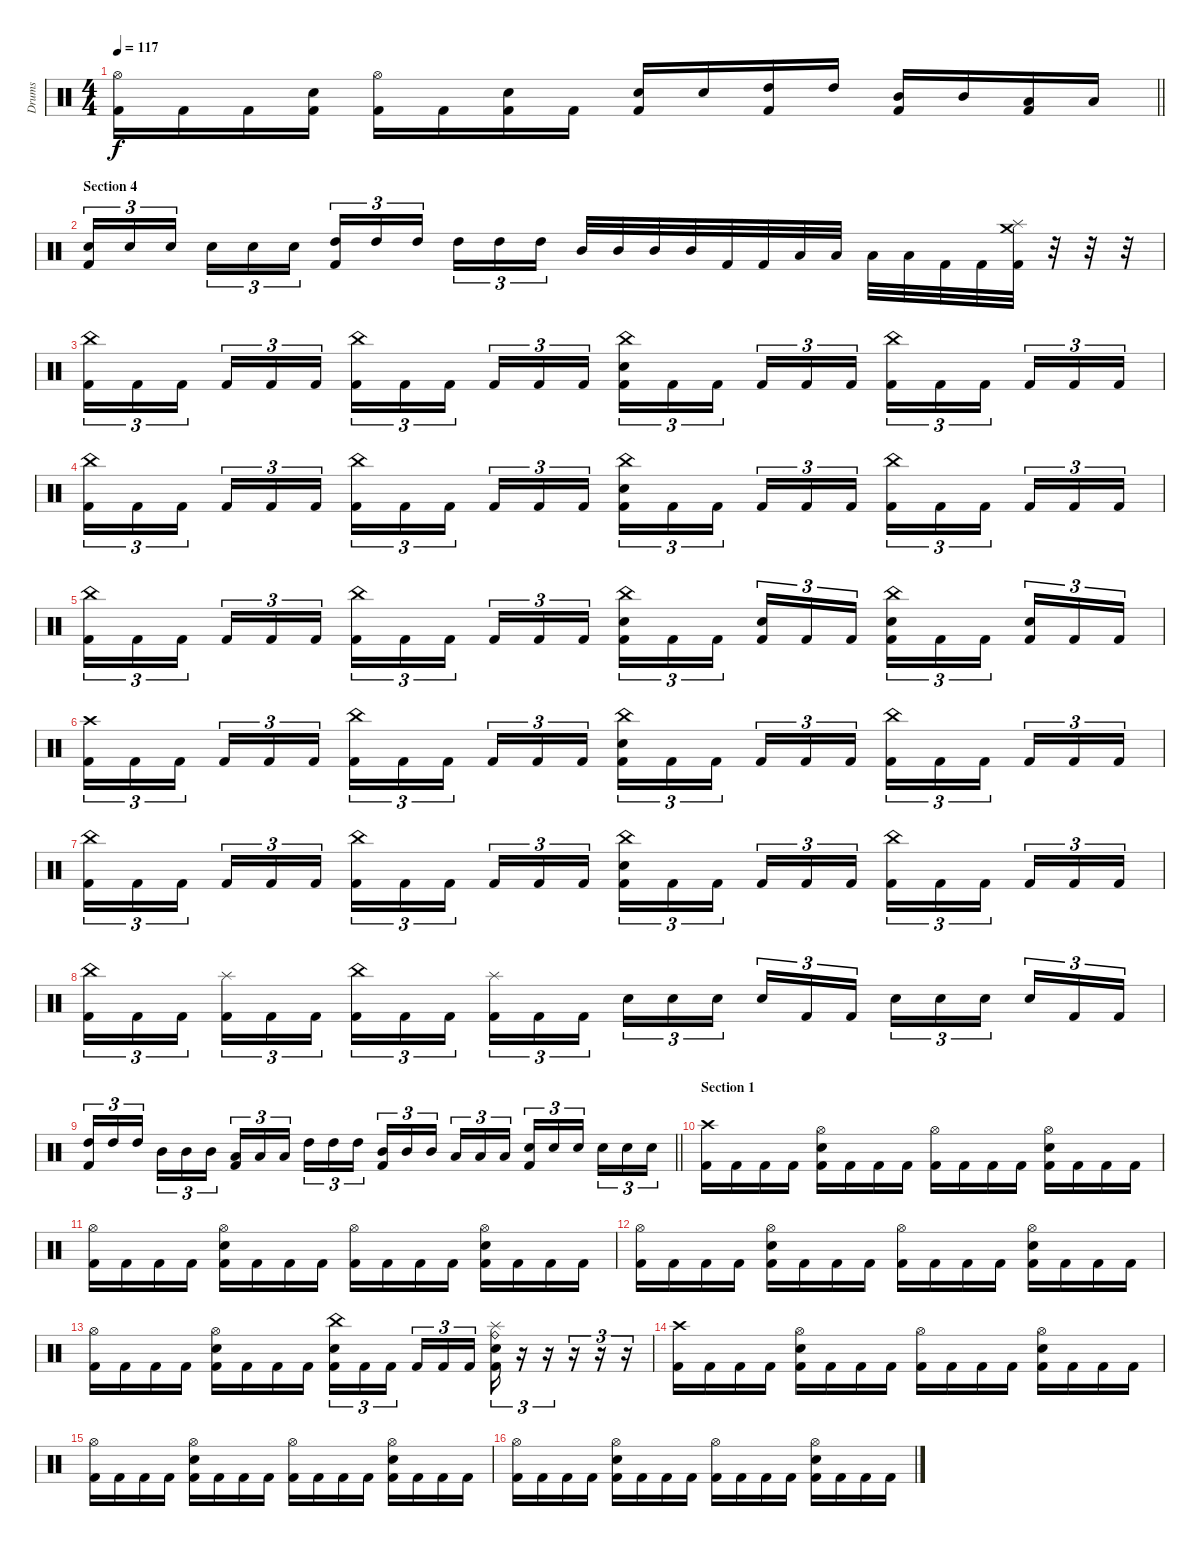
\track ("Drums" "Drums") {instrument percussion}
\staff {score}
\articulation defaults
\ts (4 4)
\tempo 117
\clef neutral
\barLineRight lightlight
\ks c
("Hi-Hat (open)" "Kick (hit) 2").16{dy f} "Kick (hit) 2".16 "Kick (hit) 2".16 ("Snare (hit) 2" "Kick (hit) 2").16 ("Hi-Hat (open)" "Kick (hit) 2").16 "Kick (hit) 2".16 ("Snare (hit) 2" "Kick (hit) 2").16 "Kick (hit) 2".16 ("Snare (hit) 2" "Kick (hit) 2").16 "Snare (hit) 2".16 ("High Tom (hit)" "Kick (hit) 2").16 "High Tom (hit)".16 ("Mid Tom (hit)" "Kick (hit) 2").16 "Mid Tom (hit)".16 ("Low Tom (hit)" "Kick (hit) 2").16 "Low Tom (hit)".16 |
\section ("" "Section 4")
("Snare (hit) 2" "Kick (hit) 2").16{tu (3 2)} "Snare (hit) 2".16{tu (3 2)} "Snare (hit) 2".16{tu (3 2) beam splitsecondary} "Snare (hit) 2".16{tu (3 2)} "Snare (hit) 2".16{tu (3 2)} "Snare (hit) 2".16{tu (3 2)} ("High Tom (hit)" "Kick (hit) 2").16{tu (3 2)} "High Tom (hit)".16{tu (3 2)} "High Tom (hit)".16{tu (3 2) beam splitsecondary} "High Tom (hit)".16{tu (3 2)} "High Tom (hit)".16{tu (3 2)} "High Tom (hit)".16{tu (3 2)} "Mid Tom (hit)".32 "Mid Tom (hit)".32 "Mid Tom (hit)".32 "Mid Tom (hit)".32 "Kick (hit) 2".32 "Kick (hit) 2".32 "Low Tom (hit)".32 "Low Tom (hit)".32 "Low Tom (hit)".32 "Low Tom (hit)".32 "Kick (hit) 2".32 "Kick (hit) 2".32 ("Crash medium (hit)" "Splash (hit)" "Kick (hit) 2").32 r.32 r.32 r.32 |
("China (hit)" "Kick (hit) 2").16{tu (3 2)} "Kick (hit) 2".16{tu (3 2)} "Kick (hit) 2".16{tu (3 2) beam splitsecondary} "Kick (hit) 2".16{tu (3 2)} "Kick (hit) 2".16{tu (3 2)} "Kick (hit) 2".16{tu (3 2)} ("China (hit)" "Kick (hit) 2").16{tu (3 2)} "Kick (hit) 2".16{tu (3 2)} "Kick (hit) 2".16{tu (3 2) beam splitsecondary} "Kick (hit) 2".16{tu (3 2)} "Kick (hit) 2".16{tu (3 2)} "Kick (hit) 2".16{tu (3 2)} ("China (hit)" "Snare (hit) 2" "Kick (hit) 2").16{tu (3 2)} "Kick (hit) 2".16{tu (3 2)} "Kick (hit) 2".16{tu (3 2) beam splitsecondary} "Kick (hit) 2".16{tu (3 2)} "Kick (hit) 2".16{tu (3 2)} "Kick (hit) 2".16{tu (3 2)} ("China (hit)" "Kick (hit) 2").16{tu (3 2)} "Kick (hit) 2".16{tu (3 2)} "Kick (hit) 2".16{tu (3 2) beam splitsecondary} "Kick (hit) 2".16{tu (3 2)} "Kick (hit) 2".16{tu (3 2)} "Kick (hit) 2".16{tu (3 2)} |
("China (hit)" "Kick (hit) 2").16{tu (3 2)} "Kick (hit) 2".16{tu (3 2)} "Kick (hit) 2".16{tu (3 2) beam splitsecondary} "Kick (hit) 2".16{tu (3 2)} "Kick (hit) 2".16{tu (3 2)} "Kick (hit) 2".16{tu (3 2)} ("China (hit)" "Kick (hit) 2").16{tu (3 2)} "Kick (hit) 2".16{tu (3 2)} "Kick (hit) 2".16{tu (3 2) beam splitsecondary} "Kick (hit) 2".16{tu (3 2)} "Kick (hit) 2".16{tu (3 2)} "Kick (hit) 2".16{tu (3 2)} ("China (hit)" "Snare (hit) 2" "Kick (hit) 2").16{tu (3 2)} "Kick (hit) 2".16{tu (3 2)} "Kick (hit) 2".16{tu (3 2) beam splitsecondary} "Kick (hit) 2".16{tu (3 2)} "Kick (hit) 2".16{tu (3 2)} "Kick (hit) 2".16{tu (3 2)} ("China (hit)" "Kick (hit) 2").16{tu (3 2)} "Kick (hit) 2".16{tu (3 2)} "Kick (hit) 2".16{tu (3 2) beam splitsecondary} "Kick (hit) 2".16{tu (3 2)} "Kick (hit) 2".16{tu (3 2)} "Kick (hit) 2".16{tu (3 2)} |
("China (hit)" "Kick (hit) 2").16{tu (3 2)} "Kick (hit) 2".16{tu (3 2)} "Kick (hit) 2".16{tu (3 2) beam splitsecondary} "Kick (hit) 2".16{tu (3 2)} "Kick (hit) 2".16{tu (3 2)} "Kick (hit) 2".16{tu (3 2)} ("China (hit)" "Kick (hit) 2").16{tu (3 2)} "Kick (hit) 2".16{tu (3 2)} "Kick (hit) 2".16{tu (3 2) beam splitsecondary} "Kick (hit) 2".16{tu (3 2)} "Kick (hit) 2".16{tu (3 2)} "Kick (hit) 2".16{tu (3 2)} ("China (hit)" "Snare (hit) 2" "Kick (hit) 2").16{tu (3 2)} "Kick (hit) 2".16{tu (3 2)} "Kick (hit) 2".16{tu (3 2) beam splitsecondary} ("Snare (hit) 2" "Kick (hit) 2").16{tu (3 2)} "Kick (hit) 2".16{tu (3 2)} "Kick (hit) 2".16{tu (3 2)} ("China (hit)" "Snare (hit) 2" "Kick (hit) 2").16{tu (3 2)} "Kick (hit) 2".16{tu (3 2)} "Kick (hit) 2".16{tu (3 2) beam splitsecondary} ("Snare (hit) 2" "Kick (hit) 2").16{tu (3 2)} "Kick (hit) 2".16{tu (3 2)} "Kick (hit) 2".16{tu (3 2)} |
("Crash high (hit)" "Kick (hit) 2").16{tu (3 2)} "Kick (hit) 2".16{tu (3 2)} "Kick (hit) 2".16{tu (3 2) beam splitsecondary} "Kick (hit) 2".16{tu (3 2)} "Kick (hit) 2".16{tu (3 2)} "Kick (hit) 2".16{tu (3 2)} ("China (hit)" "Kick (hit) 2").16{tu (3 2)} "Kick (hit) 2".16{tu (3 2)} "Kick (hit) 2".16{tu (3 2) beam splitsecondary} "Kick (hit) 2".16{tu (3 2)} "Kick (hit) 2".16{tu (3 2)} "Kick (hit) 2".16{tu (3 2)} ("China (hit)" "Snare (hit) 2" "Kick (hit) 2").16{tu (3 2)} "Kick (hit) 2".16{tu (3 2)} "Kick (hit) 2".16{tu (3 2) beam splitsecondary} "Kick (hit) 2".16{tu (3 2)} "Kick (hit) 2".16{tu (3 2)} "Kick (hit) 2".16{tu (3 2)} ("China (hit)" "Kick (hit) 2").16{tu (3 2)} "Kick (hit) 2".16{tu (3 2)} "Kick (hit) 2".16{tu (3 2) beam splitsecondary} "Kick (hit) 2".16{tu (3 2)} "Kick (hit) 2".16{tu (3 2)} "Kick (hit) 2".16{tu (3 2)} |
("China (hit)" "Kick (hit) 2").16{tu (3 2)} "Kick (hit) 2".16{tu (3 2)} "Kick (hit) 2".16{tu (3 2) beam splitsecondary} "Kick (hit) 2".16{tu (3 2)} "Kick (hit) 2".16{tu (3 2)} "Kick (hit) 2".16{tu (3 2)} ("China (hit)" "Kick (hit) 2").16{tu (3 2)} "Kick (hit) 2".16{tu (3 2)} "Kick (hit) 2".16{tu (3 2) beam splitsecondary} "Kick (hit) 2".16{tu (3 2)} "Kick (hit) 2".16{tu (3 2)} "Kick (hit) 2".16{tu (3 2)} ("China (hit)" "Snare (hit) 2" "Kick (hit) 2").16{tu (3 2)} "Kick (hit) 2".16{tu (3 2)} "Kick (hit) 2".16{tu (3 2) beam splitsecondary} "Kick (hit) 2".16{tu (3 2)} "Kick (hit) 2".16{tu (3 2)} "Kick (hit) 2".16{tu (3 2)} ("China (hit)" "Kick (hit) 2").16{tu (3 2)} "Kick (hit) 2".16{tu (3 2)} "Kick (hit) 2".16{tu (3 2) beam splitsecondary} "Kick (hit) 2".16{tu (3 2)} "Kick (hit) 2".16{tu (3 2)} "Kick (hit) 2".16{tu (3 2)} |
("China (hit)" "Kick (hit) 2").16{tu (3 2)} "Kick (hit) 2".16{tu (3 2)} "Kick (hit) 2".16{tu (3 2) beam splitsecondary} ("Splash (hit)" "Kick (hit) 2").16{tu (3 2)} "Kick (hit) 2".16{tu (3 2)} "Kick (hit) 2".16{tu (3 2)} ("China (hit)" "Kick (hit) 2").16{tu (3 2)} "Kick (hit) 2".16{tu (3 2)} "Kick (hit) 2".16{tu (3 2) beam splitsecondary} ("Splash (hit)" "Kick (hit) 2").16{tu (3 2)} "Kick (hit) 2".16{tu (3 2)} "Kick (hit) 2".16{tu (3 2)} "Snare (hit) 2".16{tu (3 2)} "Snare (hit) 2".16{tu (3 2)} "Snare (hit) 2".16{tu (3 2) beam splitsecondary} "Snare (hit) 2".16{tu (3 2)} "Kick (hit) 2".16{tu (3 2)} "Kick (hit) 2".16{tu (3 2)} "Snare (hit) 2".16{tu (3 2)} "Snare (hit) 2".16{tu (3 2)} "Snare (hit) 2".16{tu (3 2) beam splitsecondary} "Snare (hit) 2".16{tu (3 2)} "Kick (hit) 2".16{tu (3 2)} "Kick (hit) 2".16{tu (3 2)} |
\barLineRight lightlight
("High Tom (hit)" "Kick (hit) 2").16{tu (3 2)} "High Tom (hit)".16{tu (3 2)} "High Tom (hit)".16{tu (3 2) beam splitsecondary} "Mid Tom (hit)".16{tu (3 2)} "Mid Tom (hit)".16{tu (3 2)} "Mid Tom (hit)".16{tu (3 2)} ("Low Tom (hit)" "Kick (hit) 2").16{tu (3 2)} "Low Tom (hit)".16{tu (3 2)} "Low Tom (hit)".16{tu (3 2) beam splitsecondary} "High Tom (hit)".16{tu (3 2)} "High Tom (hit)".16{tu (3 2)} "High Tom (hit)".16{tu (3 2)} ("Mid Tom (hit)" "Kick (hit) 2").16{tu (3 2)} "Mid Tom (hit)".16{tu (3 2)} "Mid Tom (hit)".16{tu (3 2) beam splitsecondary} "Low Tom (hit)".16{tu (3 2)} "Low Tom (hit)".16{tu (3 2)} "Low Tom (hit)".16{tu (3 2)} ("Snare (hit) 2" "Kick (hit) 2").16{tu (3 2)} "Snare (hit) 2".16{tu (3 2)} "Snare (hit) 2".16{tu (3 2) beam splitsecondary} "Snare (hit) 2".16{tu (3 2)} "Snare (hit) 2".16{tu (3 2)} "Snare (hit) 2".16{tu (3 2)} |
\section ("" "Section 1")
("Crash high (hit)" "Kick (hit) 2").16 "Kick (hit) 2".16 "Kick (hit) 2".16 "Kick (hit) 2".16 ("Hi-Hat (open)" "Snare (hit) 2" "Kick (hit) 2").16 "Kick (hit) 2".16 "Kick (hit) 2".16 "Kick (hit) 2".16 ("Hi-Hat (open)" "Kick (hit) 2").16 "Kick (hit) 2".16 "Kick (hit) 2".16 "Kick (hit) 2".16 ("Hi-Hat (open)" "Snare (hit) 2" "Kick (hit) 2").16 "Kick (hit) 2".16 "Kick (hit) 2".16 "Kick (hit) 2".16 |
("Hi-Hat (open)" "Kick (hit) 2").16 "Kick (hit) 2".16 "Kick (hit) 2".16 "Kick (hit) 2".16 ("Hi-Hat (open)" "Snare (hit) 2" "Kick (hit) 2").16 "Kick (hit) 2".16 "Kick (hit) 2".16 "Kick (hit) 2".16 ("Hi-Hat (open)" "Kick (hit) 2").16 "Kick (hit) 2".16 "Kick (hit) 2".16 "Kick (hit) 2".16 ("Hi-Hat (open)" "Snare (hit) 2" "Kick (hit) 2").16 "Kick (hit) 2".16 "Kick (hit) 2".16 "Kick (hit) 2".16 |
("Hi-Hat (open)" "Kick (hit) 2").16 "Kick (hit) 2".16 "Kick (hit) 2".16 "Kick (hit) 2".16 ("Hi-Hat (open)" "Snare (hit) 2" "Kick (hit) 2").16 "Kick (hit) 2".16 "Kick (hit) 2".16 "Kick (hit) 2".16 ("Hi-Hat (open)" "Kick (hit) 2").16 "Kick (hit) 2".16 "Kick (hit) 2".16 "Kick (hit) 2".16 ("Hi-Hat (open)" "Snare (hit) 2" "Kick (hit) 2").16 "Kick (hit) 2".16 "Kick (hit) 2".16 "Kick (hit) 2".16 |
("Hi-Hat (open)" "Kick (hit) 2").16 "Kick (hit) 2".16 "Kick (hit) 2".16 "Kick (hit) 2".16 ("Hi-Hat (open)" "Snare (hit) 2" "Kick (hit) 2").16 "Kick (hit) 2".16 "Kick (hit) 2".16 "Kick (hit) 2".16 ("China (hit)" "Snare (hit) 2" "Kick (hit) 2").16{tu (3 2)} "Kick (hit) 2".16{tu (3 2)} "Kick (hit) 2".16{tu (3 2) beam splitsecondary} "Kick (hit) 2".16{tu (3 2)} "Kick (hit) 2".16{tu (3 2)} "Kick (hit) 2".16{tu (3 2)} ("Ride (bell)" "Splash (hit)" "Snare (hit) 2" "Kick (hit) 2").16{tu (3 2)} r.16{tu (3 2)} r.16{tu (3 2)} r.16{tu (3 2)} r.16{tu (3 2)} r.16{tu (3 2)} |
("Crash high (hit)" "Kick (hit) 2").16 "Kick (hit) 2".16 "Kick (hit) 2".16 "Kick (hit) 2".16 ("Hi-Hat (open)" "Snare (hit) 2" "Kick (hit) 2").16 "Kick (hit) 2".16 "Kick (hit) 2".16 "Kick (hit) 2".16 ("Hi-Hat (open)" "Kick (hit) 2").16 "Kick (hit) 2".16 "Kick (hit) 2".16 "Kick (hit) 2".16 ("Hi-Hat (open)" "Snare (hit) 2" "Kick (hit) 2").16 "Kick (hit) 2".16 "Kick (hit) 2".16 "Kick (hit) 2".16 |
("Hi-Hat (open)" "Kick (hit) 2").16 "Kick (hit) 2".16 "Kick (hit) 2".16 "Kick (hit) 2".16 ("Hi-Hat (open)" "Snare (hit) 2" "Kick (hit) 2").16 "Kick (hit) 2".16 "Kick (hit) 2".16 "Kick (hit) 2".16 ("Hi-Hat (open)" "Kick (hit) 2").16 "Kick (hit) 2".16 "Kick (hit) 2".16 "Kick (hit) 2".16 ("Hi-Hat (open)" "Snare (hit) 2" "Kick (hit) 2").16 "Kick (hit) 2".16 "Kick (hit) 2".16 "Kick (hit) 2".16 |
("Hi-Hat (open)" "Kick (hit) 2").16 "Kick (hit) 2".16 "Kick (hit) 2".16 "Kick (hit) 2".16 ("Hi-Hat (open)" "Snare (hit) 2" "Kick (hit) 2").16 "Kick (hit) 2".16 "Kick (hit) 2".16 "Kick (hit) 2".16 ("Hi-Hat (open)" "Kick (hit) 2").16 "Kick (hit) 2".16 "Kick (hit) 2".16 "Kick (hit) 2".16 ("Hi-Hat (open)" "Snare (hit) 2" "Kick (hit) 2").16 "Kick (hit) 2".16 "Kick (hit) 2".16 "Kick (hit) 2".16
